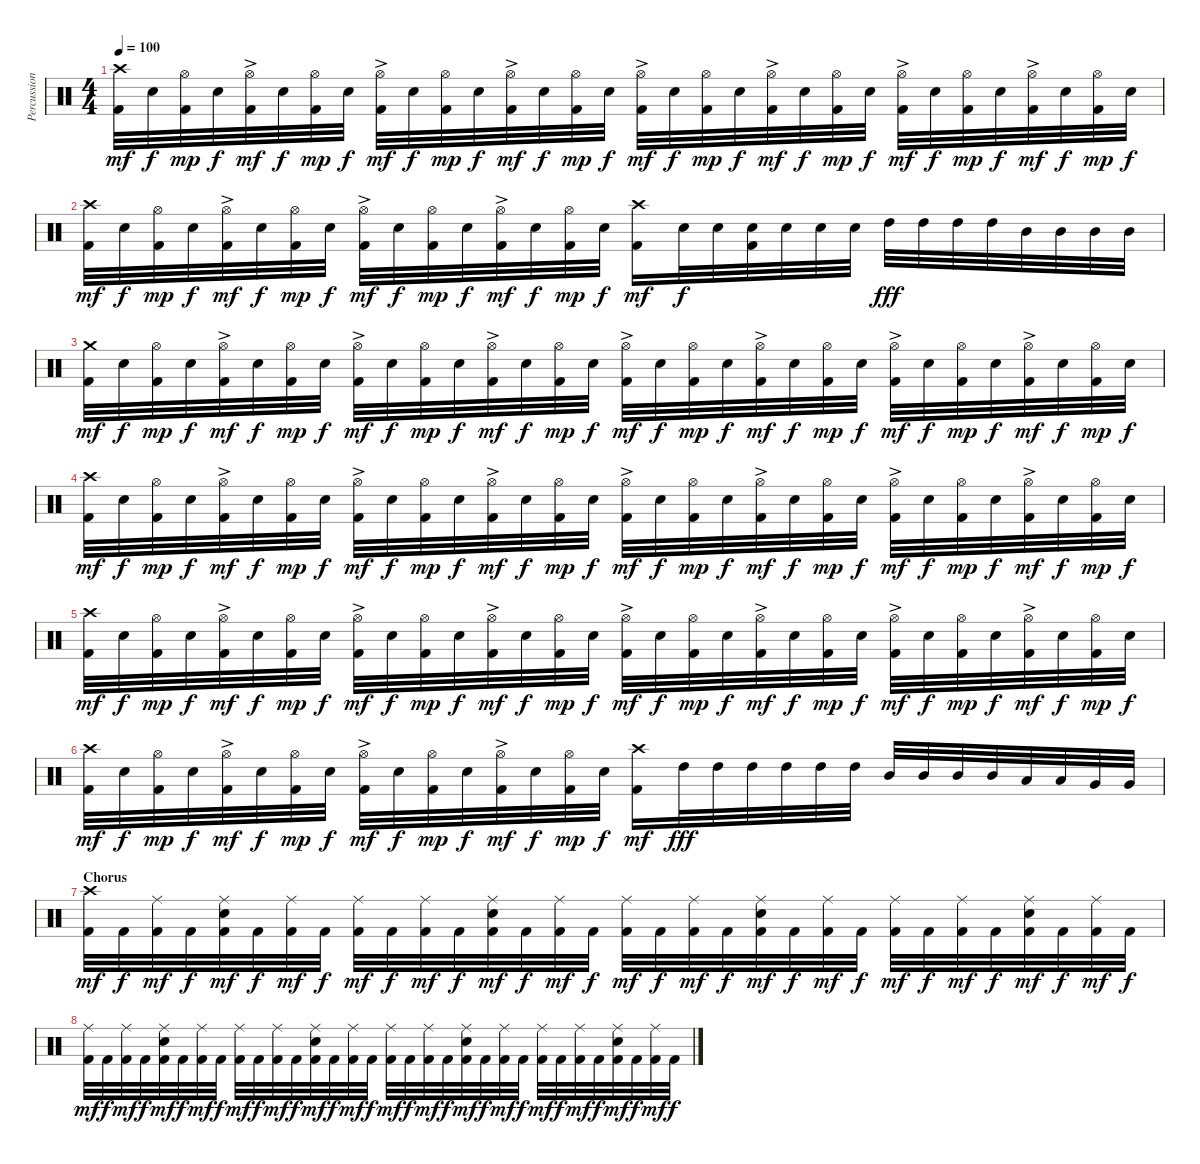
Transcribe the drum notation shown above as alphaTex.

\track ("Percussion" "Percussion") {instrument percussion}
\staff {score}
\articulation defaults
\ts (4 4)
\tempo 100
\clef neutral
\ks c
("Crash high (hit)" "Kick (hit) 2").32{dy mf} "Electric Snare (hit)".32{dy f} ("Hi-Hat (open)" "Kick (hit) 2").32{dy mp} "Electric Snare (hit)".32{dy f} ("Hi-Hat (open)"{ac} "Kick (hit) 2").32{dy mf} "Electric Snare (hit)".32{dy f} ("Hi-Hat (open)" "Kick (hit) 2").32{dy mp} "Electric Snare (hit)".32{dy f} ("Hi-Hat (open)"{ac} "Kick (hit) 2").32{dy mf} "Electric Snare (hit)".32{dy f} ("Hi-Hat (open)" "Kick (hit) 2").32{dy mp} "Electric Snare (hit)".32{dy f} ("Hi-Hat (open)"{ac} "Kick (hit) 2").32{dy mf} "Electric Snare (hit)".32{dy f} ("Hi-Hat (open)" "Kick (hit) 2").32{dy mp} "Electric Snare (hit)".32{dy f} ("Hi-Hat (open)"{ac} "Kick (hit) 2").32{dy mf} "Electric Snare (hit)".32{dy f} ("Hi-Hat (open)" "Kick (hit) 2").32{dy mp} "Electric Snare (hit)".32{dy f} ("Hi-Hat (open)"{ac} "Kick (hit) 2").32{dy mf} "Electric Snare (hit)".32{dy f} ("Hi-Hat (open)" "Kick (hit) 2").32{dy mp} "Electric Snare (hit)".32{dy f} ("Hi-Hat (open)"{ac} "Kick (hit) 2").32{dy mf} "Electric Snare (hit)".32{dy f} ("Hi-Hat (open)" "Kick (hit) 2").32{dy mp} "Electric Snare (hit)".32{dy f} ("Hi-Hat (open)"{ac} "Kick (hit) 2").32{dy mf} "Electric Snare (hit)".32{dy f} ("Hi-Hat (open)" "Kick (hit) 2").32{dy mp} "Electric Snare (hit)".32{dy f} |
("Crash high (hit)" "Kick (hit) 2").32{dy mf} "Electric Snare (hit)".32{dy f} ("Hi-Hat (open)" "Kick (hit) 2").32{dy mp} "Electric Snare (hit)".32{dy f} ("Hi-Hat (open)"{ac} "Kick (hit) 2").32{dy mf} "Electric Snare (hit)".32{dy f} ("Hi-Hat (open)" "Kick (hit) 2").32{dy mp} "Electric Snare (hit)".32{dy f} ("Hi-Hat (open)"{ac} "Kick (hit) 2").32{dy mf} "Electric Snare (hit)".32{dy f} ("Hi-Hat (open)" "Kick (hit) 2").32{dy mp} "Electric Snare (hit)".32{dy f} ("Hi-Hat (open)"{ac} "Kick (hit) 2").32{dy mf} "Electric Snare (hit)".32{dy f} ("Hi-Hat (open)" "Kick (hit) 2").32{dy mp} "Electric Snare (hit)".32{dy f} ("Crash high (hit)" "Kick (hit) 2").16{dy mf} "Electric Snare (hit)".32{dy f} "Electric Snare (hit)".32 ("Electric Snare (hit)" "Kick (hit) 2").32 "Electric Snare (hit)".32 "Electric Snare (hit)".32 "Electric Snare (hit)".32 "High Tom (hit)".32{dy fff} "High Tom (hit)".32 "High Tom (hit)".32 "High Tom (hit)".32 "Mid Tom (hit)".32 "Mid Tom (hit)".32 "Mid Tom (hit)".32 "Mid Tom (hit)".32 |
("Crash medium (hit)" "Kick (hit) 2").32{dy mf} "Electric Snare (hit)".32{dy f} ("Hi-Hat (open)" "Kick (hit) 2").32{dy mp} "Electric Snare (hit)".32{dy f} ("Hi-Hat (open)"{ac} "Kick (hit) 2").32{dy mf} "Electric Snare (hit)".32{dy f} ("Hi-Hat (open)" "Kick (hit) 2").32{dy mp} "Electric Snare (hit)".32{dy f} ("Hi-Hat (open)"{ac} "Kick (hit) 2").32{dy mf} "Electric Snare (hit)".32{dy f} ("Hi-Hat (open)" "Kick (hit) 2").32{dy mp} "Electric Snare (hit)".32{dy f} ("Hi-Hat (open)"{ac} "Kick (hit) 2").32{dy mf} "Electric Snare (hit)".32{dy f} ("Hi-Hat (open)" "Kick (hit) 2").32{dy mp} "Electric Snare (hit)".32{dy f} ("Hi-Hat (open)"{ac} "Kick (hit) 2").32{dy mf} "Electric Snare (hit)".32{dy f} ("Hi-Hat (open)" "Kick (hit) 2").32{dy mp} "Electric Snare (hit)".32{dy f} ("Hi-Hat (open)"{ac} "Kick (hit) 2").32{dy mf} "Electric Snare (hit)".32{dy f} ("Hi-Hat (open)" "Kick (hit) 2").32{dy mp} "Electric Snare (hit)".32{dy f} ("Hi-Hat (open)"{ac} "Kick (hit) 2").32{dy mf} "Electric Snare (hit)".32{dy f} ("Hi-Hat (open)" "Kick (hit) 2").32{dy mp} "Electric Snare (hit)".32{dy f} ("Hi-Hat (open)"{ac} "Kick (hit) 2").32{dy mf} "Electric Snare (hit)".32{dy f} ("Hi-Hat (open)" "Kick (hit) 2").32{dy mp} "Electric Snare (hit)".32{dy f} |
("Crash high (hit)" "Kick (hit) 2").32{dy mf} "Electric Snare (hit)".32{dy f} ("Hi-Hat (open)" "Kick (hit) 2").32{dy mp} "Electric Snare (hit)".32{dy f} ("Hi-Hat (open)"{ac} "Kick (hit) 2").32{dy mf} "Electric Snare (hit)".32{dy f} ("Hi-Hat (open)" "Kick (hit) 2").32{dy mp} "Electric Snare (hit)".32{dy f} ("Hi-Hat (open)"{ac} "Kick (hit) 2").32{dy mf} "Electric Snare (hit)".32{dy f} ("Hi-Hat (open)" "Kick (hit) 2").32{dy mp} "Electric Snare (hit)".32{dy f} ("Hi-Hat (open)"{ac} "Kick (hit) 2").32{dy mf} "Electric Snare (hit)".32{dy f} ("Hi-Hat (open)" "Kick (hit) 2").32{dy mp} "Electric Snare (hit)".32{dy f} ("Hi-Hat (open)"{ac} "Kick (hit) 2").32{dy mf} "Electric Snare (hit)".32{dy f} ("Hi-Hat (open)" "Kick (hit) 2").32{dy mp} "Electric Snare (hit)".32{dy f} ("Hi-Hat (open)"{ac} "Kick (hit) 2").32{dy mf} "Electric Snare (hit)".32{dy f} ("Hi-Hat (open)" "Kick (hit) 2").32{dy mp} "Electric Snare (hit)".32{dy f} ("Hi-Hat (open)"{ac} "Kick (hit) 2").32{dy mf} "Electric Snare (hit)".32{dy f} ("Hi-Hat (open)" "Kick (hit) 2").32{dy mp} "Electric Snare (hit)".32{dy f} ("Hi-Hat (open)"{ac} "Kick (hit) 2").32{dy mf} "Electric Snare (hit)".32{dy f} ("Hi-Hat (open)" "Kick (hit) 2").32{dy mp} "Electric Snare (hit)".32{dy f} |
("Crash high (hit)" "Kick (hit) 2").32{dy mf} "Electric Snare (hit)".32{dy f} ("Hi-Hat (open)" "Kick (hit) 2").32{dy mp} "Electric Snare (hit)".32{dy f} ("Hi-Hat (open)"{ac} "Kick (hit) 2").32{dy mf} "Electric Snare (hit)".32{dy f} ("Hi-Hat (open)" "Kick (hit) 2").32{dy mp} "Electric Snare (hit)".32{dy f} ("Hi-Hat (open)"{ac} "Kick (hit) 2").32{dy mf} "Electric Snare (hit)".32{dy f} ("Hi-Hat (open)" "Kick (hit) 2").32{dy mp} "Electric Snare (hit)".32{dy f} ("Hi-Hat (open)"{ac} "Kick (hit) 2").32{dy mf} "Electric Snare (hit)".32{dy f} ("Hi-Hat (open)" "Kick (hit) 2").32{dy mp} "Electric Snare (hit)".32{dy f} ("Hi-Hat (open)"{ac} "Kick (hit) 2").32{dy mf} "Electric Snare (hit)".32{dy f} ("Hi-Hat (open)" "Kick (hit) 2").32{dy mp} "Electric Snare (hit)".32{dy f} ("Hi-Hat (open)"{ac} "Kick (hit) 2").32{dy mf} "Electric Snare (hit)".32{dy f} ("Hi-Hat (open)" "Kick (hit) 2").32{dy mp} "Electric Snare (hit)".32{dy f} ("Hi-Hat (open)"{ac} "Kick (hit) 2").32{dy mf} "Electric Snare (hit)".32{dy f} ("Hi-Hat (open)" "Kick (hit) 2").32{dy mp} "Electric Snare (hit)".32{dy f} ("Hi-Hat (open)"{ac} "Kick (hit) 2").32{dy mf} "Electric Snare (hit)".32{dy f} ("Hi-Hat (open)" "Kick (hit) 2").32{dy mp} "Electric Snare (hit)".32{dy f} |
("Crash high (hit)" "Kick (hit) 2").32{dy mf} "Electric Snare (hit)".32{dy f} ("Hi-Hat (open)" "Kick (hit) 2").32{dy mp} "Electric Snare (hit)".32{dy f} ("Hi-Hat (open)"{ac} "Kick (hit) 2").32{dy mf} "Electric Snare (hit)".32{dy f} ("Hi-Hat (open)" "Kick (hit) 2").32{dy mp} "Electric Snare (hit)".32{dy f} ("Hi-Hat (open)"{ac} "Kick (hit) 2").32{dy mf} "Electric Snare (hit)".32{dy f} ("Hi-Hat (open)" "Kick (hit) 2").32{dy mp} "Electric Snare (hit)".32{dy f} ("Hi-Hat (open)"{ac} "Kick (hit) 2").32{dy mf} "Electric Snare (hit)".32{dy f} ("Hi-Hat (open)" "Kick (hit) 2").32{dy mp} "Electric Snare (hit)".32{dy f} ("Crash high (hit)" "Kick (hit) 2").16{dy mf} "High Tom (hit)".32{dy fff} "High Tom (hit)".32 "High Tom (hit)".32 "High Tom (hit)".32 "High Tom (hit)".32 "High Tom (hit)".32 "Mid Tom (hit)".32 "Mid Tom (hit)".32 "Mid Tom (hit)".32 "Mid Tom (hit)".32 "Low Tom (hit)".32 "Low Tom (hit)".32 "Very Low Tom (hit)".32 "Very Low Tom (hit)".32 |
\section ("" "Chorus")
("Crash high (hit)" "Kick (hit) 2").32{dy mf} "Kick (hit) 2".32{dy f} ("Ride (middle)" "Kick (hit) 2").32{dy mf} "Kick (hit) 2".32{dy f} ("Ride (middle)" "Electric Snare (hit)" "Kick (hit) 2").32{dy mf} "Kick (hit) 2".32{dy f} ("Ride (middle)" "Kick (hit) 2").32{dy mf} "Kick (hit) 2".32{dy f} ("Ride (middle)" "Kick (hit) 2").32{dy mf} "Kick (hit) 2".32{dy f} ("Ride (middle)" "Kick (hit) 2").32{dy mf} "Kick (hit) 2".32{dy f} ("Ride (middle)" "Electric Snare (hit)" "Kick (hit) 2").32{dy mf} "Kick (hit) 2".32{dy f} ("Ride (middle)" "Kick (hit) 2").32{dy mf} "Kick (hit) 2".32{dy f} ("Ride (middle)" "Kick (hit) 2").32{dy mf} "Kick (hit) 2".32{dy f} ("Ride (middle)" "Kick (hit) 2").32{dy mf} "Kick (hit) 2".32{dy f} ("Ride (middle)" "Electric Snare (hit)" "Kick (hit) 2").32{dy mf} "Kick (hit) 2".32{dy f} ("Ride (middle)" "Kick (hit) 2").32{dy mf} "Kick (hit) 2".32{dy f} ("Ride (middle)" "Kick (hit) 2").32{dy mf} "Kick (hit) 2".32{dy f} ("Ride (middle)" "Kick (hit) 2").32{dy mf} "Kick (hit) 2".32{dy f} ("Ride (middle)" "Electric Snare (hit)" "Kick (hit) 2").32{dy mf} "Kick (hit) 2".32{dy f} ("Ride (middle)" "Kick (hit) 2").32{dy mf} "Kick (hit) 2".32{dy f} |
("Ride (middle)" "Kick (hit) 2").32{dy mf} "Kick (hit) 2".32{dy f} ("Ride (middle)" "Kick (hit) 2").32{dy mf} "Kick (hit) 2".32{dy f} ("Ride (middle)" "Electric Snare (hit)" "Kick (hit) 2").32{dy mf} "Kick (hit) 2".32{dy f} ("Ride (middle)" "Kick (hit) 2").32{dy mf} "Kick (hit) 2".32{dy f} ("Ride (middle)" "Kick (hit) 2").32{dy mf} "Kick (hit) 2".32{dy f} ("Ride (middle)" "Kick (hit) 2").32{dy mf} "Kick (hit) 2".32{dy f} ("Ride (middle)" "Electric Snare (hit)" "Kick (hit) 2").32{dy mf} "Kick (hit) 2".32{dy f} ("Ride (middle)" "Kick (hit) 2").32{dy mf} "Kick (hit) 2".32{dy f} ("Ride (middle)" "Kick (hit) 2").32{dy mf} "Kick (hit) 2".32{dy f} ("Ride (middle)" "Kick (hit) 2").32{dy mf} "Kick (hit) 2".32{dy f} ("Ride (middle)" "Electric Snare (hit)" "Kick (hit) 2").32{dy mf} "Kick (hit) 2".32{dy f} ("Ride (middle)" "Kick (hit) 2").32{dy mf} "Kick (hit) 2".32{dy f} ("Ride (middle)" "Kick (hit) 2").32{dy mf} "Kick (hit) 2".32{dy f} ("Ride (middle)" "Kick (hit) 2").32{dy mf} "Kick (hit) 2".32{dy f} ("Ride (middle)" "Electric Snare (hit)" "Kick (hit) 2").32{dy mf} "Kick (hit) 2".32{dy f} ("Ride (middle)" "Kick (hit) 2").32{dy mf} "Kick (hit) 2".32{dy f}
